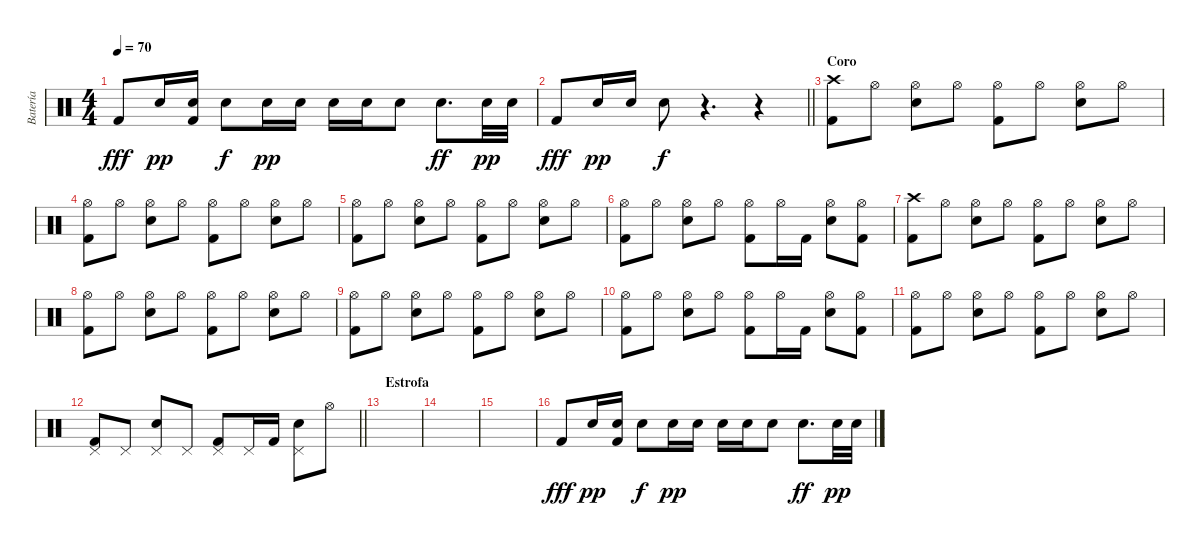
\track ("Batería" "Batería") {instrument percussion}
\staff {score}
\articulation defaults
\ts (4 4)
\tempo 70
\clef neutral
\ks c "Kick (hit) 2".8{dy fff} "Snare (hit) 2".16{dy pp}
("Kick (hit) 2" "Snare (hit) 2").16 "Snare (hit) 2".8{dy f} "Snare (hit) 2".16{dy pp} "Snare (hit) 2".16 "Snare (hit) 2".16 "Snare (hit) 2".16 "Snare (hit) 2".8 "Snare (hit) 2".8{d dy ff} "Snare (hit) 2".32{dy pp} "Snare (hit) 2".32 |
\barLineRight lightlight "Kick (hit) 2".8{dy fff} "Snare (hit) 2".16{dy pp} "Snare (hit) 2".16 "Snare (hit) 2".8{dy f}
r.4{d} r.4 |
\section ("" "Coro")
("Kick (hit) 2" "Crash high (hit)").8 "Hi-Hat (open)".8 ("Snare (hit) 2" "Hi-Hat (open)").8 "Hi-Hat (open)".8 ("Hi-Hat (open)" "Kick (hit) 2").8 "Hi-Hat (open)".8 ("Hi-Hat (open)" "Snare (hit) 2").8 "Hi-Hat (open)".8 |
("Hi-Hat (open)" "Kick (hit) 2").8 "Hi-Hat (open)".8 ("Snare (hit) 2" "Hi-Hat (open)").8 "Hi-Hat (open)".8 ("Hi-Hat (open)" "Kick (hit) 2").8 "Hi-Hat (open)".8 ("Hi-Hat (open)" "Snare (hit) 2").8 "Hi-Hat (open)".8 |
("Hi-Hat (open)" "Kick (hit) 2").8 "Hi-Hat (open)".8 ("Snare (hit) 2" "Hi-Hat (open)").8 "Hi-Hat (open)".8 ("Hi-Hat (open)" "Kick (hit) 2").8 "Hi-Hat (open)".8 ("Hi-Hat (open)" "Snare (hit) 2").8 "Hi-Hat (open)".8 |
("Hi-Hat (open)" "Kick (hit) 2").8 "Hi-Hat (open)".8 ("Snare (hit) 2" "Hi-Hat (open)").8 "Hi-Hat (open)".8 ("Hi-Hat (open)" "Kick (hit) 2").8 "Hi-Hat (open)".16 "Kick (hit) 2".16 ("Snare (hit) 2" "Hi-Hat (open)").8 ("Kick (hit) 2" "Hi-Hat (open)").8 |
("Kick (hit) 2" "Crash high (hit)").8 "Hi-Hat (open)".8 ("Snare (hit) 2" "Hi-Hat (open)").8 "Hi-Hat (open)".8 ("Hi-Hat (open)" "Kick (hit) 2").8 "Hi-Hat (open)".8 ("Hi-Hat (open)" "Snare (hit) 2").8 "Hi-Hat (open)".8 |
("Hi-Hat (open)" "Kick (hit) 2").8 "Hi-Hat (open)".8 ("Snare (hit) 2" "Hi-Hat (open)").8 "Hi-Hat (open)".8 ("Hi-Hat (open)" "Kick (hit) 2").8 "Hi-Hat (open)".8 ("Hi-Hat (open)" "Snare (hit) 2").8 "Hi-Hat (open)".8 |
("Hi-Hat (open)" "Kick (hit) 2").8 "Hi-Hat (open)".8 ("Snare (hit) 2" "Hi-Hat (open)").8 "Hi-Hat (open)".8 ("Hi-Hat (open)" "Kick (hit) 2").8 "Hi-Hat (open)".8 ("Hi-Hat (open)" "Snare (hit) 2").8 "Hi-Hat (open)".8 |
("Hi-Hat (open)" "Kick (hit) 2").8 "Hi-Hat (open)".8 ("Snare (hit) 2" "Hi-Hat (open)").8 "Hi-Hat (open)".8 ("Hi-Hat (open)" "Kick (hit) 2").8 "Hi-Hat (open)".16 "Kick (hit) 2".16 ("Snare (hit) 2" "Hi-Hat (open)").8 ("Kick (hit) 2" "Hi-Hat (open)").8 |
("Hi-Hat (open)" "Kick (hit) 2").8 "Hi-Hat (open)".8 ("Snare (hit) 2" "Hi-Hat (open)").8 "Hi-Hat (open)".8 ("Hi-Hat (open)" "Kick (hit) 2").8 "Hi-Hat (open)".8 ("Hi-Hat (open)" "Snare (hit) 2").8 "Hi-Hat (open)".8 |
\barLineRight lightlight
("Pedal Hi-Hat (hit)" "Kick (hit) 2").8 "Pedal Hi-Hat (hit)".8 ("Snare (hit) 2" "Pedal Hi-Hat (hit)").8 "Pedal Hi-Hat (hit)".8 ("Kick (hit) 2" "Pedal Hi-Hat (hit)").8 "Pedal Hi-Hat (hit)".16 "Kick (hit) 2".16 ("Snare (hit) 2" "Pedal Hi-Hat (hit)").8 "Hi-Hat (open)".8 |
\section ("" "Estrofa")
|
|
|
"Kick (hit) 2".8{dy fff} "Snare (hit) 2".16{dy pp} ("Kick (hit) 2" "Snare (hit) 2").16 "Snare (hit) 2".8{dy f} "Snare (hit) 2".16{dy pp} "Snare (hit) 2".16 "Snare (hit) 2".16 "Snare (hit) 2".16 "Snare (hit) 2".8 "Snare (hit) 2".8{d dy ff} "Snare (hit) 2".32{dy pp} "Snare (hit) 2".32
